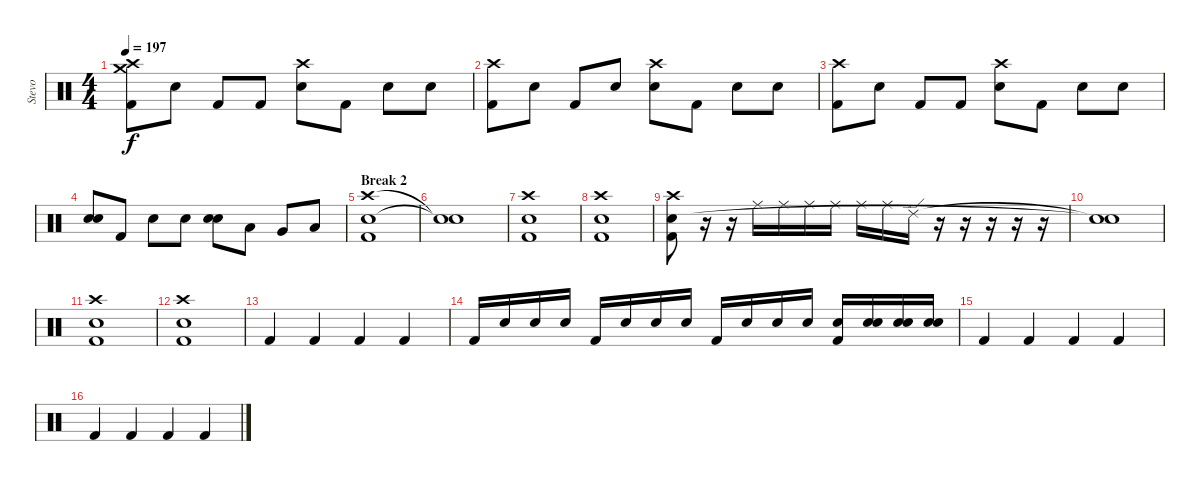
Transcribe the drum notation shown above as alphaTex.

\track ("Stevo" "Stevo") {instrument percussion}
\staff {score}
\articulation defaults
\ts (4 4)
\tempo 197
\clef neutral
\ks c
("Crash medium (hit)" "Crash high (hit)" "Kick (hit) 2").8{dy f} "Snare (hit)".8 "Kick (hit) 2".8 "Kick (hit) 2".8 ("Crash high (hit)" "Electric Snare (hit)").8 "Kick (hit) 2".8 "Snare (hit)".8 "Electric Snare (hit)".8 |
("Crash high (hit)" "Kick (hit) 2").8 "Electric Snare (hit)".8 "Kick (hit) 2".8 "Snare (hit)".8 ("Crash high (hit)" "Electric Snare (hit)").8 "Kick (hit) 2".8 "Snare (hit)".8 "Electric Snare (hit)".8 |
("Crash high (hit)" "Kick (hit) 2").8 "Snare (hit)".8 "Kick (hit) 2".8 "Kick (hit) 2".8 ("Crash high (hit)" "Electric Snare (hit)").8 "Kick (hit) 2".8 "Snare (hit)".8 "Electric Snare (hit)".8 |
("Electric Snare (hit)" "Electric Snare (hit)").8 "Kick (hit) 2".8 "Snare (hit)".8 "Snare (hit)".8 ("Electric Snare (hit)" "Electric Snare (hit)").8 "Low Tom (hit)".8 "Very Low Tom (hit)".8 "Low Tom (hit)".8 |
\section ("" "Break 2")
("Crash high (hit)" "Electric Snare (hit)" "Kick (hit) 2").1 |
("Snare (hit)"{t} "Snare (hit)"{t}).1 |
("Crash high (hit)" "Electric Snare (hit)" "Kick (hit) 2").1 |
("Crash high (hit)" "Electric Snare (hit)" "Kick (hit) 2").1 |
("Crash high (hit)" "Electric Snare (hit)" "Kick (hit) 2").8 r.16 r.16 "Ride (middle)".16 "Ride (middle)".16 "Ride (middle)".16 "Ride (middle)".16 "Ride (middle)".16 "Ride (middle)".16 "Ride (edge) 2".16 r.16 r.16 r.16 r.16 r.16 |
("Snare (hit)"{t} "Snare (hit)"{t}).1 |
("Crash high (hit)" "Electric Snare (hit)" "Kick (hit) 2").1 |
("Crash high (hit)" "Electric Snare (hit)" "Kick (hit) 2").1 |
"Kick (hit) 2".4 "Kick (hit) 2".4 "Kick (hit) 2".4 "Kick (hit) 2".4 |
"Kick (hit) 2".16 "Snare (hit)".16 "Snare (hit)".16 "Snare (hit)".16 "Kick (hit) 2".16 "Snare (hit)".16 "Snare (hit)".16 "Snare (hit)".16 "Kick (hit) 2".16 "Snare (hit)".16 "Snare (hit)".16 "Snare (hit)".16 ("Electric Snare (hit)" "Kick (hit) 2").16 ("Electric Snare (hit)" "Snare (hit)").16 ("Electric Snare (hit)" "Snare (hit)").16 ("Electric Snare (hit)" "Snare (hit)").16 |
"Kick (hit) 2".4 "Kick (hit) 2".4 "Kick (hit) 2".4 "Kick (hit) 2".4 |
"Kick (hit) 2".4 "Kick (hit) 2".4 "Kick (hit) 2".4 "Kick (hit) 2".4
